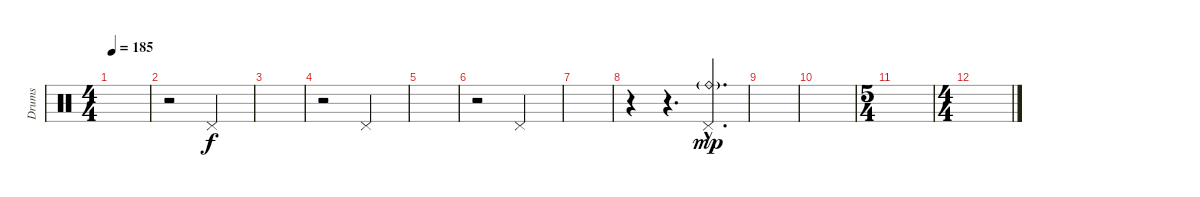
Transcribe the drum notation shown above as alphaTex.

\track ("Drums" "Drums") {instrument percussion}
\staff {score}
\articulation defaults
\ts (4 4)
\tempo 185
\clef neutral
\ks c
|
r.2 "Pedal Hi-Hat (hit)".2 |
|
r.2 "Pedal Hi-Hat (hit)".2 |
|
r.2 "Pedal Hi-Hat (hit)".2 |
|
r.4 r.4{d} ("Pedal Hi-Hat (hit)"{hac} "Ride (bell)"{g hac}).4{d dy mp} |
|
|
\ts (5 4)
|
\ts (4 4)
